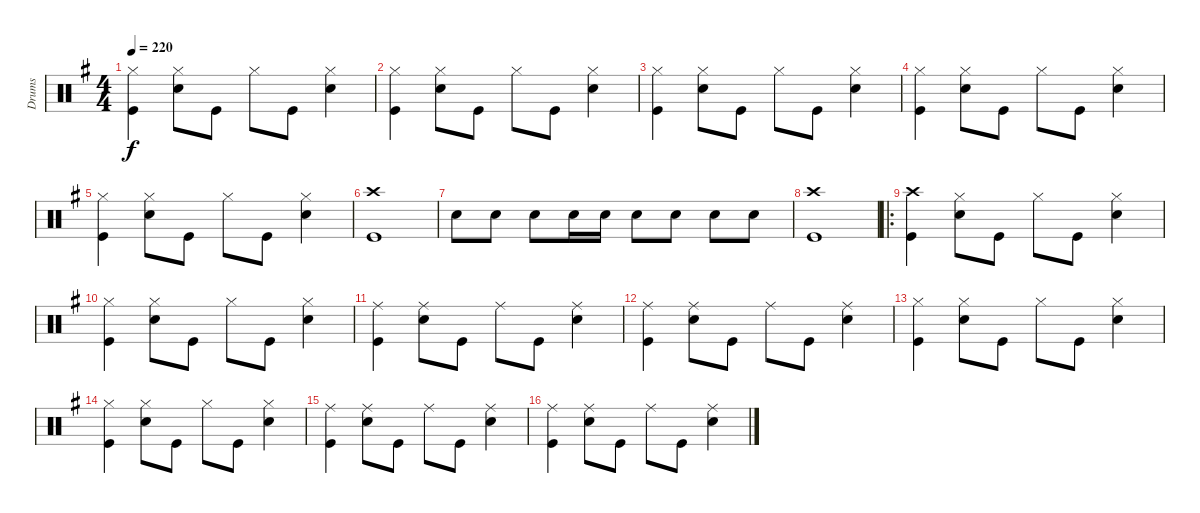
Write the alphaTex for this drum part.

\track ("Drums" "Drums") {instrument percussion}
\staff {score}
\articulation defaults
\ts (4 4)
\tempo 220
\clef neutral
\ks g
("Hi-Hat (closed)" "Kick (hit)").4{dy f} ("Hi-Hat (closed)" "Snare (hit) 2").8 "Kick (hit)".8 "Hi-Hat (closed)".8 "Kick (hit)".8 ("Hi-Hat (closed)" "Snare (hit) 2").4 |
("Hi-Hat (closed)" "Kick (hit)").4 ("Hi-Hat (closed)" "Snare (hit) 2").8 "Kick (hit)".8 "Hi-Hat (closed)".8 "Kick (hit)".8 ("Hi-Hat (closed)" "Snare (hit) 2").4 |
("Hi-Hat (closed)" "Kick (hit)").4 ("Hi-Hat (closed)" "Snare (hit) 2").8 "Kick (hit)".8 "Hi-Hat (closed)".8 "Kick (hit)".8 ("Hi-Hat (closed)" "Snare (hit) 2").4 |
("Hi-Hat (closed)" "Kick (hit)").4 ("Hi-Hat (closed)" "Snare (hit) 2").8 "Kick (hit)".8 "Hi-Hat (closed)".8 "Kick (hit)".8 ("Hi-Hat (closed)" "Snare (hit) 2").4 |
("Hi-Hat (closed)" "Kick (hit)").4 ("Hi-Hat (closed)" "Snare (hit) 2").8 "Kick (hit)".8 "Hi-Hat (closed)".8 "Kick (hit)".8 ("Hi-Hat (closed)" "Snare (hit) 2").4 |
("Crash high (hit)" "Kick (hit)").1 |
"Snare (hit) 2".8 "Snare (hit) 2".8 "Snare (hit) 2".8 "Snare (hit) 2".16 "Snare (hit) 2".16 "Snare (hit) 2".8 "Snare (hit) 2".8 "Snare (hit) 2".8 "Snare (hit) 2".8 |
("Crash high (hit)" "Kick (hit)").1 |
\ro
("Crash high (hit)" "Kick (hit)").4 ("Hi-Hat (closed)" "Snare (hit) 2").8 "Kick (hit)".8 "Hi-Hat (closed)".8 "Kick (hit)".8 ("Hi-Hat (closed)" "Snare (hit) 2").4 |
("Hi-Hat (closed)" "Kick (hit)").4 ("Hi-Hat (closed)" "Snare (hit) 2").8 "Kick (hit)".8 "Hi-Hat (closed)".8 "Kick (hit)".8 ("Hi-Hat (closed)" "Snare (hit) 2").4 |
("Ride (middle)" "Kick (hit)").4 ("Ride (middle)" "Snare (hit) 2").8 "Kick (hit)".8 "Ride (middle)".8 "Kick (hit)".8 ("Ride (middle)" "Snare (hit) 2").4 |
("Ride (middle)" "Kick (hit)").4 ("Ride (middle)" "Snare (hit) 2").8 "Kick (hit)".8 "Ride (middle)".8 "Kick (hit)".8 ("Ride (middle)" "Snare (hit) 2").4 |
("Hi-Hat (closed)" "Kick (hit)").4 ("Hi-Hat (closed)" "Snare (hit) 2").8 "Kick (hit)".8 "Hi-Hat (closed)".8 "Kick (hit)".8 ("Hi-Hat (closed)" "Snare (hit) 2").4 |
("Hi-Hat (closed)" "Kick (hit)").4 ("Hi-Hat (closed)" "Snare (hit) 2").8 "Kick (hit)".8 "Hi-Hat (closed)".8 "Kick (hit)".8 ("Hi-Hat (closed)" "Snare (hit) 2").4 |
("Ride (middle)" "Kick (hit)").4 ("Ride (middle)" "Snare (hit) 2").8 "Kick (hit)".8 "Ride (middle)".8 "Kick (hit)".8 ("Ride (middle)" "Snare (hit) 2").4 |
("Ride (middle)" "Kick (hit)").4 ("Ride (middle)" "Snare (hit) 2").8 "Kick (hit)".8 "Ride (middle)".8 "Kick (hit)".8 ("Ride (middle)" "Snare (hit) 2").4
